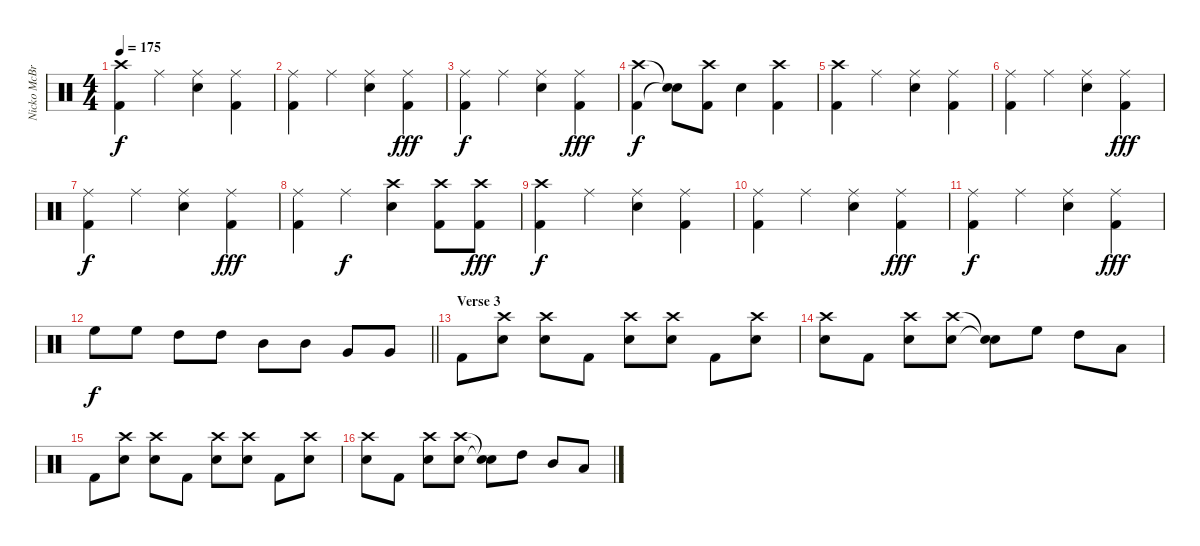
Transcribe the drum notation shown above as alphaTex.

\track ("Nicko McBrian" "Nicko McBr") {instrument percussion}
\staff {score}
\articulation defaults
\ts (4 4)
\tempo 175
\clef neutral
\ks c
("Crash high (hit)" "Kick (hit) 2").4{dy f} "Ride (middle)".4 ("Ride (middle)" "Electric Snare (hit)").4 ("Ride (middle)" "Kick (hit) 2").4 |
("Ride (middle)" "Kick (hit) 2").4 "Ride (middle)".4 ("Ride (middle)" "Electric Snare (hit)").4 ("Ride (middle)" "Kick (hit) 2").4{dy fff} |
("Ride (middle)" "Kick (hit) 2").4{dy f} "Ride (middle)".4 ("Ride (middle)" "Electric Snare (hit)").4 ("Ride (middle)" "Kick (hit) 2").4{dy fff} |
("Crash high (hit)" "Kick (hit) 2").4{dy f} ("Snare (hit)"{t} "Snare (hit)"{t}).8 ("Crash high (hit)" "Kick (hit) 2").8 "Electric Snare (hit)".4 ("Crash high (hit)" "Kick (hit) 2").4 |
("Crash high (hit)" "Kick (hit) 2").4 "Ride (middle)".4 ("Ride (middle)" "Electric Snare (hit)").4 ("Ride (middle)" "Kick (hit) 2").4 |
("Ride (middle)" "Kick (hit) 2").4 "Ride (middle)".4 ("Ride (middle)" "Electric Snare (hit)").4 ("Ride (middle)" "Kick (hit) 2").4{dy fff} |
("Ride (middle)" "Kick (hit) 2").4{dy f} "Ride (middle)".4 ("Ride (middle)" "Electric Snare (hit)").4 ("Ride (middle)" "Kick (hit) 2").4{dy fff} |
("Ride (middle)" "Kick (hit) 2").4 "Ride (middle)".4{dy f} ("Crash high (hit)" "Electric Snare (hit)").4 ("Crash high (hit)" "Kick (hit) 2").8 ("Crash high (hit)" "Kick (hit) 2").8{dy fff} |
("Crash high (hit)" "Kick (hit) 2").4{dy f} "Ride (middle)".4 ("Ride (middle)" "Electric Snare (hit)").4 ("Ride (middle)" "Kick (hit) 2").4 |
("Ride (middle)" "Kick (hit) 2").4 "Ride (middle)".4 ("Ride (middle)" "Electric Snare (hit)").4 ("Ride (middle)" "Kick (hit) 2").4{dy fff} |
("Ride (middle)" "Kick (hit) 2").4{dy f} "Ride (middle)".4 ("Ride (middle)" "Electric Snare (hit)").4 ("Ride (middle)" "Kick (hit) 2").4{dy fff} |
\barLineRight lightlight "High Floor Tom (hit)".8{dy f} "High Floor Tom (hit)".8 "High Tom (hit)".8 "High Tom (hit)".8 "Mid Tom (hit)".8 "Mid Tom (hit)".8 "Very Low Tom (hit)".8 "Very Low Tom (hit)".8
|
\section ("" "Verse 3")
"Kick (hit) 2".8 ("Crash high (hit)" "Electric Snare (hit)").8 ("Crash high (hit)" "Electric Snare (hit)").8 "Kick (hit) 2".8 ("Crash high (hit)" "Electric Snare (hit)").8 ("Crash high (hit)" "Electric Snare (hit)").8 "Kick (hit) 2".8 ("Crash high (hit)" "Electric Snare (hit)").8 |
("Crash high (hit)" "Electric Snare (hit)").8 "Kick (hit) 2".8 ("Crash high (hit)" "Electric Snare (hit)").8 ("Crash high (hit)" "Electric Snare (hit)").8 ("Snare (hit)"{t} "Snare (hit)"{t}).8 "High Floor Tom (hit)".8 "High Tom (hit)".8 "Low Tom (hit)".8 |
"Kick (hit) 2".8 ("Crash high (hit)" "Electric Snare (hit)").8 ("Crash high (hit)" "Electric Snare (hit)").8 "Kick (hit) 2".8 ("Crash high (hit)" "Electric Snare (hit)").8 ("Crash high (hit)" "Electric Snare (hit)").8 "Kick (hit) 2".8 ("Crash high (hit)" "Electric Snare (hit)").8 |
("Crash high (hit)" "Electric Snare (hit)").8 "Kick (hit) 2".8 ("Crash high (hit)" "Electric Snare (hit)").8 ("Crash high (hit)" "Electric Snare (hit)").8 ("Snare (hit)"{t} "Snare (hit)"{t}).8 "High Tom (hit)".8 "Mid Tom (hit)".8 "Low Tom (hit)".8
